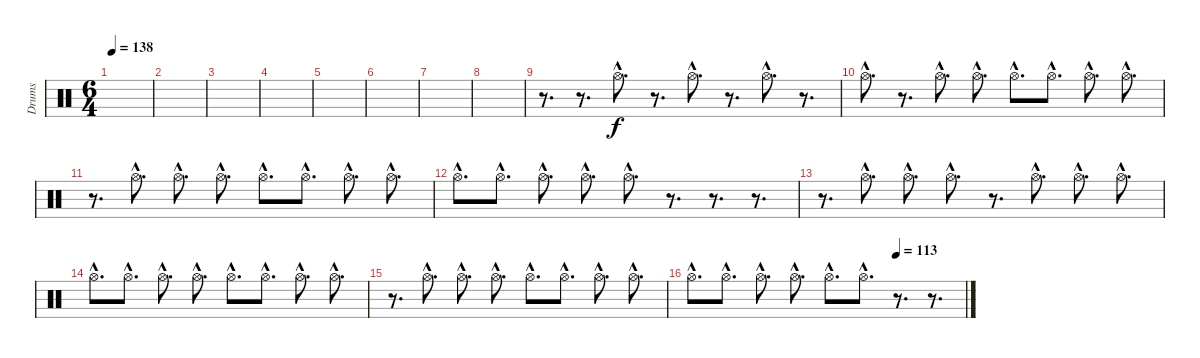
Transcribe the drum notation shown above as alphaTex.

\track ("Drums" "Drums") {instrument percussion}
\staff {score}
\articulation defaults
\ts (6 4)
\section ("" "")
\tempo 138
\clef neutral
\ks c
|
|
|
|
|
|
|
|
\section ("" "")
r.8{d} r.8{d} "Hi-Hat (open)"{hac}.8{d} r.8{d} "Hi-Hat (open)"{hac}.8{d} r.8{d} "Hi-Hat (open)"{hac}.8{d} r.8{d} |
"Hi-Hat (open)"{hac}.8{d} r.8{d} "Hi-Hat (open)"{hac}.8{d} "Hi-Hat (open)"{hac}.8{d} "Hi-Hat (open)"{hac}.8{d} "Hi-Hat (open)"{hac}.8{d} "Hi-Hat (open)"{hac}.8{d} "Hi-Hat (open)"{hac}.8{d} |
r.8{d} "Hi-Hat (open)"{hac}.8{d} "Hi-Hat (open)"{hac}.8{d} "Hi-Hat (open)"{hac}.8{d} "Hi-Hat (open)"{hac}.8{d} "Hi-Hat (open)"{hac}.8{d} "Hi-Hat (open)"{hac}.8{d} "Hi-Hat (open)"{hac}.8{d} |
"Hi-Hat (open)"{hac}.8{d} "Hi-Hat (open)"{hac}.8{d} "Hi-Hat (open)"{hac}.8{d} "Hi-Hat (open)"{hac}.8{d} "Hi-Hat (open)"{hac}.8{d} r.8{d} r.8{d} r.8{d} |
r.8{d} "Hi-Hat (open)"{hac}.8{d} "Hi-Hat (open)"{hac}.8{d} "Hi-Hat (open)"{hac}.8{d} r.8{d} "Hi-Hat (open)"{hac}.8{d} "Hi-Hat (open)"{hac}.8{d} "Hi-Hat (open)"{hac}.8{d} |
"Hi-Hat (open)"{hac}.8{d} "Hi-Hat (open)"{hac}.8{d} "Hi-Hat (open)"{hac}.8{d} "Hi-Hat (open)"{hac}.8{d} "Hi-Hat (open)"{hac}.8{d} "Hi-Hat (open)"{hac}.8{d} "Hi-Hat (open)"{hac}.8{d} "Hi-Hat (open)"{hac}.8{d} |
r.8{d} "Hi-Hat (open)"{hac}.8{d} "Hi-Hat (open)"{hac}.8{d} "Hi-Hat (open)"{hac}.8{d} "Hi-Hat (open)"{hac}.8{d} "Hi-Hat (open)"{hac}.8{d} "Hi-Hat (open)"{hac}.8{d} "Hi-Hat (open)"{hac}.8{d} |
\tempo (113 0.75)
"Hi-Hat (open)"{hac}.8{d} "Hi-Hat (open)"{hac}.8{d} "Hi-Hat (open)"{hac}.8{d} "Hi-Hat (open)"{hac}.8{d} "Hi-Hat (open)"{hac}.8{d} "Hi-Hat (open)"{hac}.8{d} r.8{d} r.8{d}
